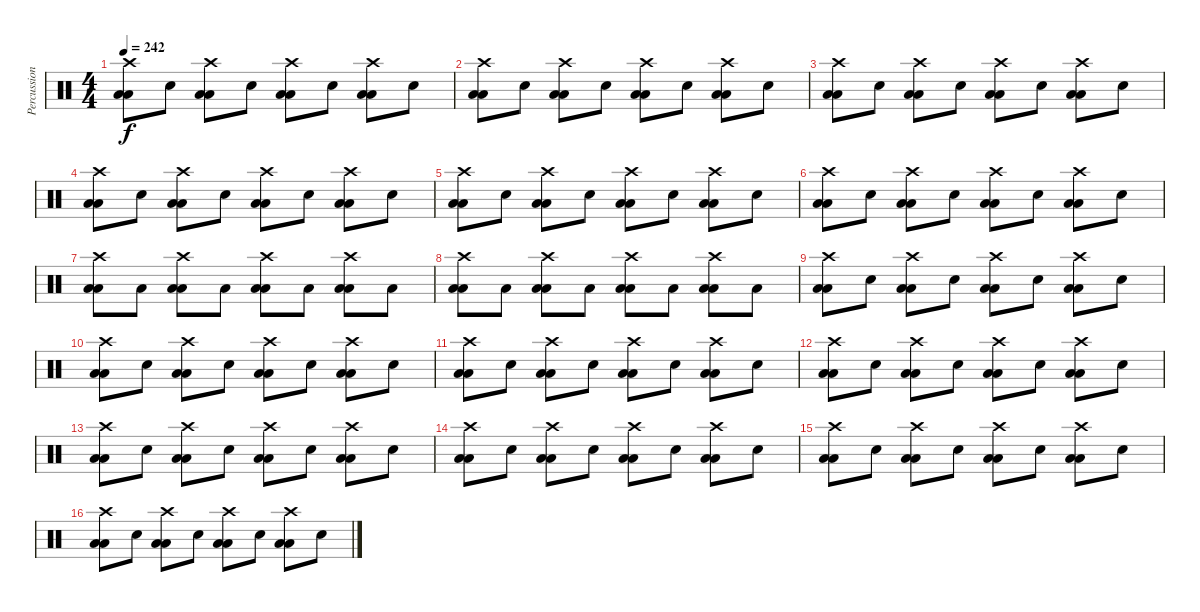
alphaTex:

\track ("Percussion" "Percussion") {instrument percussion}
\staff {score}
\articulation defaults
\ts (4 4)
\tempo 242
\clef neutral
\ks c
("Crash high (hit)" "Low Floor Tom (hit)" "Low Tom (hit)").8{dy f} "Electric Snare (hit)".8 ("Crash high (hit)" "Low Floor Tom (hit)" "Low Tom (hit)").8 "Electric Snare (hit)".8 ("Crash high (hit)" "Low Floor Tom (hit)" "Low Tom (hit)").8 "Electric Snare (hit)".8 ("Crash high (hit)" "Low Floor Tom (hit)" "Low Tom (hit)").8 "Electric Snare (hit)".8 |
("Crash high (hit)" "Low Floor Tom (hit)" "Low Tom (hit)").8 "Electric Snare (hit)".8 ("Crash high (hit)" "Low Floor Tom (hit)" "Low Tom (hit)").8 "Electric Snare (hit)".8 ("Crash high (hit)" "Low Floor Tom (hit)" "Low Tom (hit)").8 "Electric Snare (hit)".8 ("Crash high (hit)" "Low Floor Tom (hit)" "Low Tom (hit)").8 "Electric Snare (hit)".8 |
("Crash high (hit)" "Low Floor Tom (hit)" "Low Tom (hit)").8 "Electric Snare (hit)".8 ("Crash high (hit)" "Low Floor Tom (hit)" "Low Tom (hit)").8 "Electric Snare (hit)".8 ("Crash high (hit)" "Low Floor Tom (hit)" "Low Tom (hit)").8 "Electric Snare (hit)".8 ("Crash high (hit)" "Low Floor Tom (hit)" "Low Tom (hit)").8 "Electric Snare (hit)".8 |
("Crash high (hit)" "Low Floor Tom (hit)" "Low Tom (hit)").8 "Electric Snare (hit)".8 ("Crash high (hit)" "Low Floor Tom (hit)" "Low Tom (hit)").8 "Electric Snare (hit)".8 ("Crash high (hit)" "Low Floor Tom (hit)" "Low Tom (hit)").8 "Electric Snare (hit)".8 ("Crash high (hit)" "Low Floor Tom (hit)" "Low Tom (hit)").8 "Electric Snare (hit)".8 |
("Crash high (hit)" "Low Floor Tom (hit)" "Low Tom (hit)").8 "Electric Snare (hit)".8 ("Crash high (hit)" "Low Floor Tom (hit)" "Low Tom (hit)").8 "Electric Snare (hit)".8 ("Crash high (hit)" "Low Floor Tom (hit)" "Low Tom (hit)").8 "Electric Snare (hit)".8 ("Crash high (hit)" "Low Floor Tom (hit)" "Low Tom (hit)").8 "Electric Snare (hit)".8 |
("Crash high (hit)" "Low Floor Tom (hit)" "Low Tom (hit)").8 "Electric Snare (hit)".8 ("Crash high (hit)" "Low Floor Tom (hit)" "Low Tom (hit)").8 "Electric Snare (hit)".8 ("Crash high (hit)" "Low Floor Tom (hit)" "Low Tom (hit)").8 "Electric Snare (hit)".8 ("Crash high (hit)" "Low Floor Tom (hit)" "Low Tom (hit)").8 "Electric Snare (hit)".8 |
("Crash high (hit)" "Low Floor Tom (hit)" "Low Tom (hit)").8 "Low Floor Tom (hit)".8 ("Crash high (hit)" "Low Floor Tom (hit)" "Low Tom (hit)").8 "Low Floor Tom (hit)".8 ("Crash high (hit)" "Low Floor Tom (hit)" "Low Tom (hit)").8 "Low Floor Tom (hit)".8 ("Crash high (hit)" "Low Floor Tom (hit)" "Low Tom (hit)").8 "Low Floor Tom (hit)".8 |
("Crash high (hit)" "Low Floor Tom (hit)" "Low Tom (hit)").8 "Low Floor Tom (hit)".8 ("Crash high (hit)" "Low Floor Tom (hit)" "Low Tom (hit)").8 "Low Floor Tom (hit)".8 ("Crash high (hit)" "Low Floor Tom (hit)" "Low Tom (hit)").8 "Low Floor Tom (hit)".8 ("Crash high (hit)" "Low Floor Tom (hit)" "Low Tom (hit)").8 "Low Floor Tom (hit)".8 |
("Crash high (hit)" "Low Floor Tom (hit)" "Low Tom (hit)").8 "Electric Snare (hit)".8 ("Crash high (hit)" "Low Floor Tom (hit)" "Low Tom (hit)").8 "Electric Snare (hit)".8 ("Crash high (hit)" "Low Floor Tom (hit)" "Low Tom (hit)").8 "Electric Snare (hit)".8 ("Crash high (hit)" "Low Floor Tom (hit)" "Low Tom (hit)").8 "Electric Snare (hit)".8 |
("Crash high (hit)" "Low Floor Tom (hit)" "Low Tom (hit)").8 "Electric Snare (hit)".8 ("Crash high (hit)" "Low Floor Tom (hit)" "Low Tom (hit)").8 "Electric Snare (hit)".8 ("Crash high (hit)" "Low Floor Tom (hit)" "Low Tom (hit)").8 "Electric Snare (hit)".8 ("Crash high (hit)" "Low Floor Tom (hit)" "Low Tom (hit)").8 "Electric Snare (hit)".8 |
("Crash high (hit)" "Low Floor Tom (hit)" "Low Tom (hit)").8 "Electric Snare (hit)".8 ("Crash high (hit)" "Low Floor Tom (hit)" "Low Tom (hit)").8 "Electric Snare (hit)".8 ("Crash high (hit)" "Low Floor Tom (hit)" "Low Tom (hit)").8 "Electric Snare (hit)".8 ("Crash high (hit)" "Low Floor Tom (hit)" "Low Tom (hit)").8 "Electric Snare (hit)".8 |
("Crash high (hit)" "Low Floor Tom (hit)" "Low Tom (hit)").8 "Electric Snare (hit)".8 ("Crash high (hit)" "Low Floor Tom (hit)" "Low Tom (hit)").8 "Electric Snare (hit)".8 ("Crash high (hit)" "Low Floor Tom (hit)" "Low Tom (hit)").8 "Electric Snare (hit)".8 ("Crash high (hit)" "Low Floor Tom (hit)" "Low Tom (hit)").8 "Electric Snare (hit)".8 |
("Crash high (hit)" "Low Floor Tom (hit)" "Low Tom (hit)").8 "Electric Snare (hit)".8 ("Crash high (hit)" "Low Floor Tom (hit)" "Low Tom (hit)").8 "Electric Snare (hit)".8 ("Crash high (hit)" "Low Floor Tom (hit)" "Low Tom (hit)").8 "Electric Snare (hit)".8 ("Crash high (hit)" "Low Floor Tom (hit)" "Low Tom (hit)").8 "Electric Snare (hit)".8 |
("Crash high (hit)" "Low Floor Tom (hit)" "Low Tom (hit)").8 "Electric Snare (hit)".8 ("Crash high (hit)" "Low Floor Tom (hit)" "Low Tom (hit)").8 "Electric Snare (hit)".8 ("Crash high (hit)" "Low Floor Tom (hit)" "Low Tom (hit)").8 "Electric Snare (hit)".8 ("Crash high (hit)" "Low Floor Tom (hit)" "Low Tom (hit)").8 "Electric Snare (hit)".8 |
("Crash high (hit)" "Low Floor Tom (hit)" "Low Tom (hit)").8 "Electric Snare (hit)".8 ("Crash high (hit)" "Low Floor Tom (hit)" "Low Tom (hit)").8 "Electric Snare (hit)".8 ("Crash high (hit)" "Low Floor Tom (hit)" "Low Tom (hit)").8 "Electric Snare (hit)".8 ("Crash high (hit)" "Low Floor Tom (hit)" "Low Tom (hit)").8 "Electric Snare (hit)".8 |
("Crash high (hit)" "Low Floor Tom (hit)" "Low Tom (hit)").8 "Electric Snare (hit)".8 ("Crash high (hit)" "Low Floor Tom (hit)" "Low Tom (hit)").8 "Electric Snare (hit)".8 ("Crash high (hit)" "Low Floor Tom (hit)" "Low Tom (hit)").8 "Electric Snare (hit)".8 ("Crash high (hit)" "Low Floor Tom (hit)" "Low Tom (hit)").8 "Electric Snare (hit)".8
